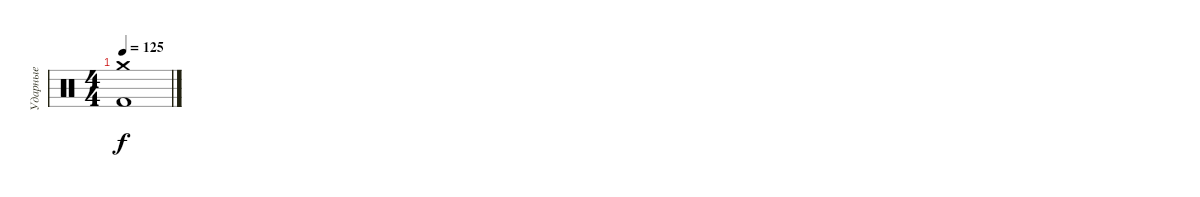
\track ("Ударные" "Ударные") {instrument percussion}
\staff {score}
\articulation defaults
\ts (4 4)
\tempo 125
\clef neutral
\ks c
("Crash medium (hit)" "Kick (hit) 2").1{dy f}
